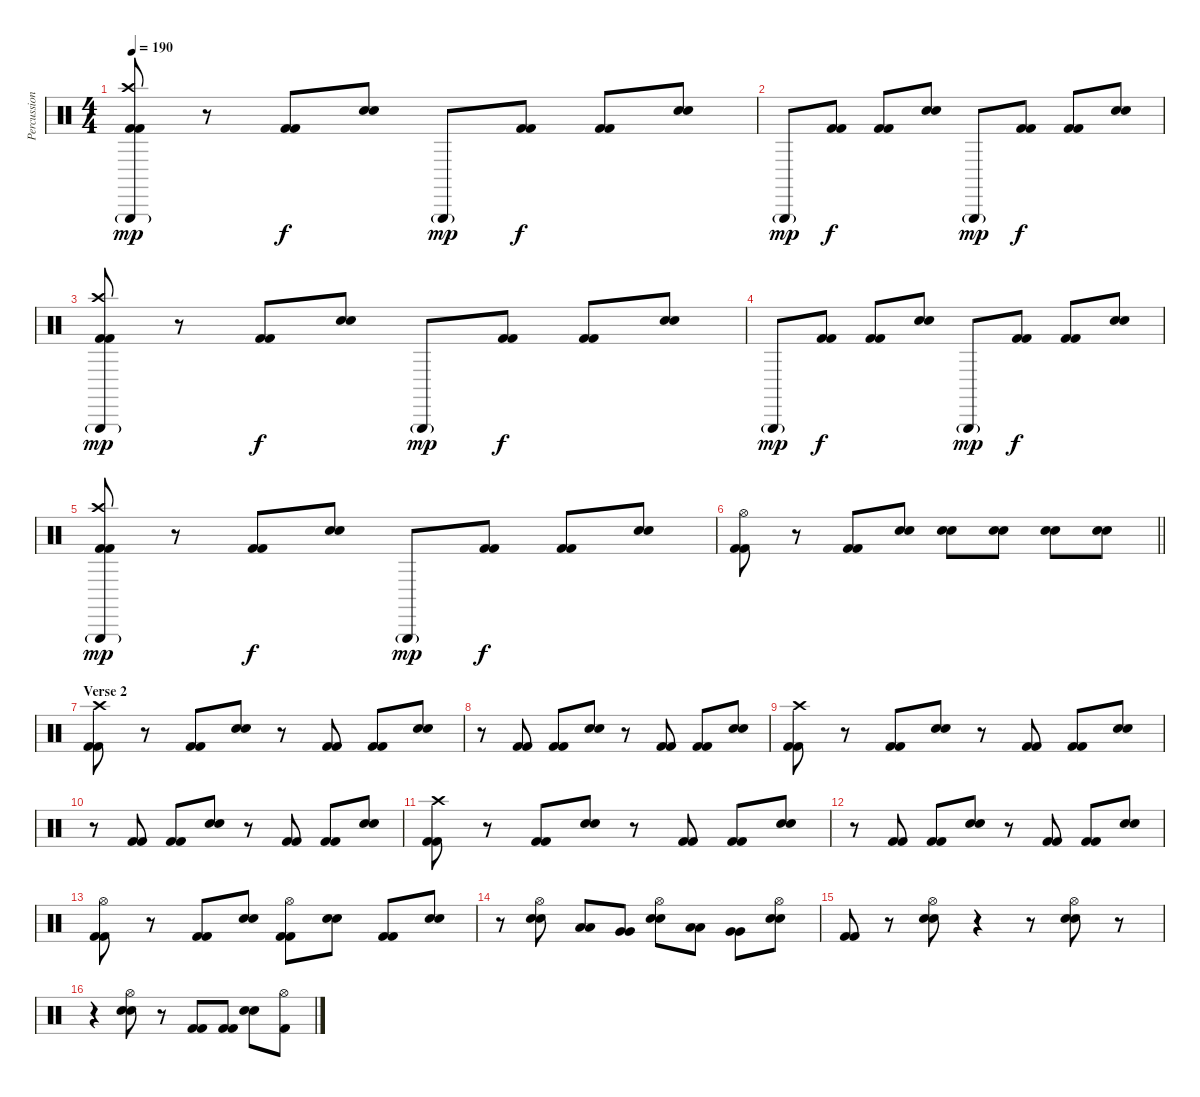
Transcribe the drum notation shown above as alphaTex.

\track ("Percussions" "Percussion") {instrument percussion}
\staff {score}
\articulation defaults
\ts (4 4)
\tempo 190
\clef neutral
\ks c
("Kick (hit) 2" "Kick (hit) 2" "Crash high (hit)" "Triangle (hit)"{g}).8{dy mp} r.8 ("Kick (hit) 2" "Kick (hit) 2").8{dy f} ("Snare (hit) 2" "Snare (hit) 2").8 "Triangle (hit)"{g}.8{dy mp} ("Kick (hit) 2" "Kick (hit) 2").8{dy f} ("Kick (hit) 2" "Kick (hit) 2").8 ("Snare (hit) 2" "Snare (hit) 2").8 |
"Triangle (hit)"{g}.8{dy mp} ("Kick (hit) 2" "Kick (hit) 2").8{dy f} ("Kick (hit) 2" "Kick (hit) 2").8 ("Snare (hit) 2" "Snare (hit) 2").8 "Triangle (hit)"{g}.8{dy mp} ("Kick (hit) 2" "Kick (hit) 2").8{dy f} ("Kick (hit) 2" "Kick (hit) 2").8 ("Snare (hit) 2" "Snare (hit) 2").8 |
("Kick (hit) 2" "Kick (hit) 2" "Crash high (hit)" "Triangle (hit)"{g}).8{dy mp} r.8 ("Kick (hit) 2" "Kick (hit) 2").8{dy f} ("Snare (hit) 2" "Snare (hit) 2").8 "Triangle (hit)"{g}.8{dy mp} ("Kick (hit) 2" "Kick (hit) 2").8{dy f} ("Kick (hit) 2" "Kick (hit) 2").8 ("Snare (hit) 2" "Snare (hit) 2").8 |
"Triangle (hit)"{g}.8{dy mp} ("Kick (hit) 2" "Kick (hit) 2").8{dy f} ("Kick (hit) 2" "Kick (hit) 2").8 ("Snare (hit) 2" "Snare (hit) 2").8 "Triangle (hit)"{g}.8{dy mp} ("Kick (hit) 2" "Kick (hit) 2").8{dy f} ("Kick (hit) 2" "Kick (hit) 2").8 ("Snare (hit) 2" "Snare (hit) 2").8 |
("Kick (hit) 2" "Kick (hit) 2" "Crash high (hit)" "Triangle (hit)"{g}).8{dy mp} r.8 ("Kick (hit) 2" "Kick (hit) 2").8{dy f} ("Snare (hit) 2" "Snare (hit) 2").8 "Triangle (hit)"{g}.8{dy mp} ("Kick (hit) 2" "Kick (hit) 2").8{dy f} ("Kick (hit) 2" "Kick (hit) 2").8 ("Snare (hit) 2" "Snare (hit) 2").8 |
\barLineRight lightlight
("Kick (hit) 2" "Kick (hit) 2" "Hi-Hat (open)").8 r.8 ("Kick (hit) 2" "Kick (hit) 2").8 ("Snare (hit) 2" "Snare (hit) 2").8 ("Snare (hit) 2" "Snare (hit) 2").8 ("Snare (hit) 2" "Snare (hit) 2").8 ("Snare (hit) 2" "Snare (hit) 2").8 ("Snare (hit) 2" "Snare (hit) 2").8 |
\section ("" "Verse 2")
("Kick (hit) 2" "Kick (hit) 2" "Crash high (hit)").8 r.8 ("Kick (hit) 2" "Kick (hit) 2").8 ("Snare (hit) 2" "Snare (hit) 2").8 r.8 ("Kick (hit) 2" "Kick (hit) 2").8 ("Kick (hit) 2" "Kick (hit) 2").8 ("Snare (hit) 2" "Snare (hit) 2").8 |
r.8 ("Kick (hit) 2" "Kick (hit) 2").8 ("Kick (hit) 2" "Kick (hit) 2").8 ("Snare (hit) 2" "Snare (hit) 2").8 r.8 ("Kick (hit) 2" "Kick (hit) 2").8 ("Kick (hit) 2" "Kick (hit) 2").8 ("Snare (hit) 2" "Snare (hit) 2").8 |
("Kick (hit) 2" "Kick (hit) 2" "Crash high (hit)").8 r.8 ("Kick (hit) 2" "Kick (hit) 2").8 ("Snare (hit) 2" "Snare (hit) 2").8 r.8 ("Kick (hit) 2" "Kick (hit) 2").8 ("Kick (hit) 2" "Kick (hit) 2").8 ("Snare (hit) 2" "Snare (hit) 2").8 |
r.8 ("Kick (hit) 2" "Kick (hit) 2").8 ("Kick (hit) 2" "Kick (hit) 2").8 ("Snare (hit) 2" "Snare (hit) 2").8 r.8 ("Kick (hit) 2" "Kick (hit) 2").8 ("Kick (hit) 2" "Kick (hit) 2").8 ("Snare (hit) 2" "Snare (hit) 2").8 |
("Kick (hit) 2" "Kick (hit) 2" "Crash high (hit)").8 r.8 ("Kick (hit) 2" "Kick (hit) 2").8 ("Snare (hit) 2" "Snare (hit) 2").8 r.8 ("Kick (hit) 2" "Kick (hit) 2").8 ("Kick (hit) 2" "Kick (hit) 2").8 ("Snare (hit) 2" "Snare (hit) 2").8 |
r.8 ("Kick (hit) 2" "Kick (hit) 2").8 ("Kick (hit) 2" "Kick (hit) 2").8 ("Snare (hit) 2" "Snare (hit) 2").8 r.8 ("Kick (hit) 2" "Kick (hit) 2").8 ("Kick (hit) 2" "Kick (hit) 2").8 ("Snare (hit) 2" "Snare (hit) 2").8 |
("Kick (hit) 2" "Kick (hit) 2" "Hi-Hat (open)").8 r.8 ("Kick (hit) 2" "Kick (hit) 2").8 ("Snare (hit) 2" "Snare (hit) 2").8 ("Kick (hit) 2" "Kick (hit) 2" "Hi-Hat (open)").8 ("Snare (hit) 2" "Snare (hit) 2").8 ("Kick (hit) 2" "Kick (hit) 2").8 ("Snare (hit) 2" "Snare (hit) 2").8 |
r.8 ("Snare (hit) 2" "Snare (hit) 2" "Hi-Hat (open)").8 ("Low Tom (hit)" "Low Tom (hit)").8 ("Very Low Tom (hit)" "Very Low Tom (hit)").8 ("Snare (hit) 2" "Snare (hit) 2" "Hi-Hat (open)").8 ("Low Tom (hit)" "Low Tom (hit)").8 ("Very Low Tom (hit)" "Very Low Tom (hit)").8 ("Snare (hit) 2" "Snare (hit) 2" "Hi-Hat (open)").8 |
("Kick (hit) 2" "Kick (hit) 2").8 r.8 ("Snare (hit) 2" "Snare (hit) 2" "Hi-Hat (open)").8 r.4 r.8 ("Snare (hit) 2" "Snare (hit) 2" "Hi-Hat (open)").8 r.8 |
r.4 ("Snare (hit) 2" "Snare (hit) 2" "Hi-Hat (open)").8 r.8 ("Kick (hit) 2" "Kick (hit) 2").8 ("Kick (hit) 2" "Kick (hit) 2").8 ("Snare (hit) 2" "Snare (hit) 2").8 ("Kick (hit) 2" "Hi-Hat (open)").8
